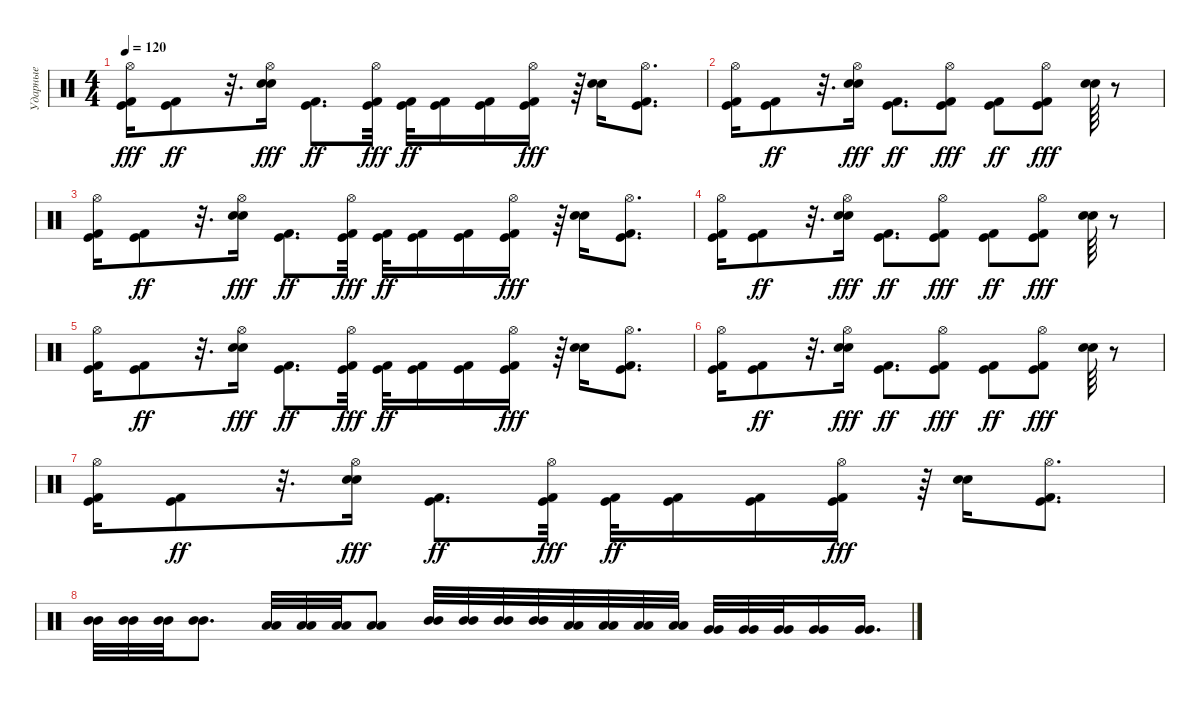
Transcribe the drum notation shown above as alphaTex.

\track ("Ударные" "Ударные") {instrument percussion}
\staff {score}
\articulation defaults
\ts (4 4)
\tempo 120
\clef neutral
\ks c
("Kick (hit) 2" "Kick (hit)" "Hi-Hat (open)").16{dy fff} ("Kick (hit) 2" "Kick (hit)").8{dy ff} r.32{d} ("Electric Snare (hit)" "Snare (hit) 2" "Hi-Hat (open)").16{dy fff} ("Kick (hit) 2" "Kick (hit)").8{d dy ff} ("Kick (hit) 2" "Kick (hit)" "Hi-Hat (open)").32{dy fff} ("Kick (hit) 2" "Kick (hit)").32{dy ff} ("Kick (hit) 2" "Kick (hit)").16 ("Kick (hit) 2" "Kick (hit)").16 ("Kick (hit) 2" "Kick (hit)" "Hi-Hat (open)").16{dy fff} r.64 ("Snare (hit) 2" "Electric Snare (hit)").16 ("Kick (hit) 2" "Kick (hit)" "Hi-Hat (open)").8{d} |
("Kick (hit) 2" "Kick (hit)" "Hi-Hat (open)").16 ("Kick (hit) 2" "Kick (hit)").8{dy ff} r.32{d} ("Electric Snare (hit)" "Snare (hit) 2" "Hi-Hat (open)").16{dy fff} ("Kick (hit) 2" "Kick (hit)").8{d dy ff} ("Kick (hit) 2" "Kick (hit)" "Hi-Hat (open)").8{dy fff} ("Kick (hit) 2" "Kick (hit)").8{dy ff} ("Kick (hit)" "Kick (hit) 2" "Hi-Hat (open)").8{dy fff} ("Electric Snare (hit)" "Snare (hit) 2").64 r.8 |
("Kick (hit) 2" "Kick (hit)" "Hi-Hat (open)").16 ("Kick (hit) 2" "Kick (hit)").8{dy ff} r.32{d} ("Electric Snare (hit)" "Snare (hit) 2" "Hi-Hat (open)").16{dy fff} ("Kick (hit) 2" "Kick (hit)").8{d dy ff} ("Kick (hit) 2" "Kick (hit)" "Hi-Hat (open)").32{dy fff} ("Kick (hit) 2" "Kick (hit)").32{dy ff} ("Kick (hit) 2" "Kick (hit)").16 ("Kick (hit) 2" "Kick (hit)").16 ("Kick (hit) 2" "Kick (hit)" "Hi-Hat (open)").16{dy fff} r.64 ("Snare (hit) 2" "Electric Snare (hit)").16 ("Kick (hit) 2" "Kick (hit)" "Hi-Hat (open)").8{d} |
("Kick (hit) 2" "Kick (hit)" "Hi-Hat (open)").16 ("Kick (hit) 2" "Kick (hit)").8{dy ff} r.32{d} ("Electric Snare (hit)" "Snare (hit) 2" "Hi-Hat (open)").16{dy fff} ("Kick (hit) 2" "Kick (hit)").8{d dy ff} ("Kick (hit) 2" "Kick (hit)" "Hi-Hat (open)").8{dy fff} ("Kick (hit) 2" "Kick (hit)").8{dy ff} ("Kick (hit)" "Kick (hit) 2" "Hi-Hat (open)").8{dy fff} ("Electric Snare (hit)" "Snare (hit) 2").64 r.8 |
("Kick (hit) 2" "Kick (hit)" "Hi-Hat (open)").16 ("Kick (hit) 2" "Kick (hit)").8{dy ff} r.32{d} ("Electric Snare (hit)" "Snare (hit) 2" "Hi-Hat (open)").16{dy fff} ("Kick (hit) 2" "Kick (hit)").8{d dy ff} ("Kick (hit) 2" "Kick (hit)" "Hi-Hat (open)").32{dy fff} ("Kick (hit) 2" "Kick (hit)").32{dy ff} ("Kick (hit) 2" "Kick (hit)").16 ("Kick (hit) 2" "Kick (hit)").16 ("Kick (hit) 2" "Kick (hit)" "Hi-Hat (open)").16{dy fff} r.64 ("Snare (hit) 2" "Electric Snare (hit)").16 ("Kick (hit) 2" "Kick (hit)" "Hi-Hat (open)").8{d} |
("Kick (hit) 2" "Kick (hit)" "Hi-Hat (open)").16 ("Kick (hit) 2" "Kick (hit)").8{dy ff} r.32{d} ("Electric Snare (hit)" "Snare (hit) 2" "Hi-Hat (open)").16{dy fff} ("Kick (hit) 2" "Kick (hit)").8{d dy ff} ("Kick (hit) 2" "Kick (hit)" "Hi-Hat (open)").8{dy fff} ("Kick (hit) 2" "Kick (hit)").8{dy ff} ("Kick (hit)" "Kick (hit) 2" "Hi-Hat (open)").8{dy fff} ("Electric Snare (hit)" "Snare (hit) 2").64 r.8 |
("Kick (hit) 2" "Kick (hit)" "Hi-Hat (open)").16 ("Kick (hit) 2" "Kick (hit)").8{dy ff} r.32{d} ("Electric Snare (hit)" "Snare (hit) 2" "Hi-Hat (open)").16{dy fff} ("Kick (hit) 2" "Kick (hit)").8{d dy ff} ("Kick (hit) 2" "Kick (hit)" "Hi-Hat (open)").32{dy fff} ("Kick (hit) 2" "Kick (hit)").32{dy ff} ("Kick (hit) 2" "Kick (hit)").16 ("Kick (hit) 2" "Kick (hit)").16 ("Kick (hit) 2" "Kick (hit)" "Hi-Hat (open)").16{dy fff} r.64 ("Snare (hit) 2" "Electric Snare (hit)").16 ("Kick (hit) 2" "Kick (hit)" "Hi-Hat (open)").8{d} |
("Mid Tom (hit)" "Mid Tom (hit)").32 ("Mid Tom (hit)" "Mid Tom (hit)").32 ("Mid Tom (hit)" "Mid Tom (hit)").32 ("Mid Tom (hit)" "Mid Tom (hit)").8{d} ("Low Tom (hit)" "Low Tom (hit)").32 ("Low Tom (hit)" "Low Tom (hit)").32 ("Low Tom (hit)" "Low Tom (hit)").32 ("Low Tom (hit)" "Low Tom (hit)").8 ("Mid Tom (hit)" "Mid Tom (hit)").32 ("Mid Tom (hit)" "Mid Tom (hit)").32 ("Mid Tom (hit)" "Mid Tom (hit)").32 ("Mid Tom (hit)" "Mid Tom (hit)").32 ("Low Tom (hit)" "Low Tom (hit)").32 ("Low Tom (hit)" "Low Tom (hit)").32 ("Low Tom (hit)" "Low Tom (hit)").32 ("Low Tom (hit)" "Low Tom (hit)").32 ("Very Low Tom (hit)" "Very Low Tom (hit)").32 ("Very Low Tom (hit)" "Very Low Tom (hit)").32 ("Very Low Tom (hit)" "Very Low Tom (hit)").32 ("Very Low Tom (hit)" "Very Low Tom (hit)").16 ("Very Low Tom (hit)" "Very Low Tom (hit)").16{d}
